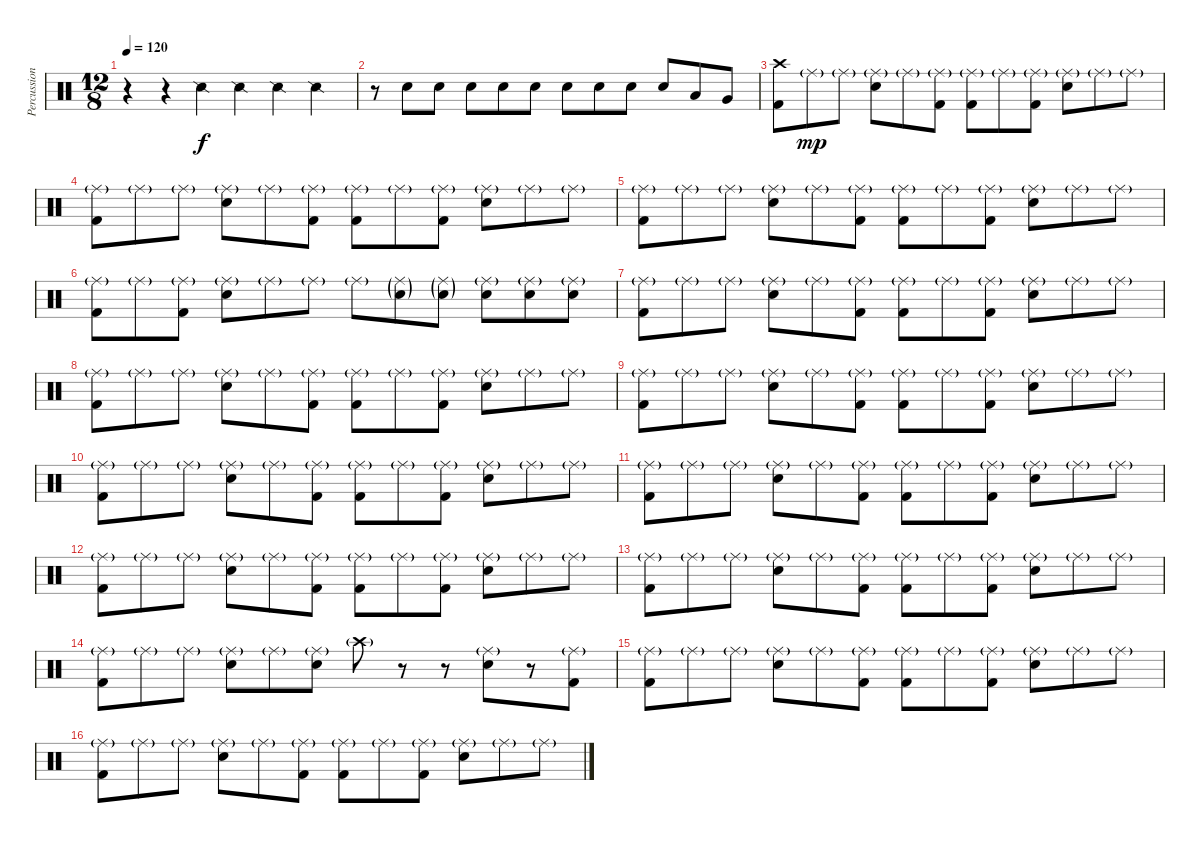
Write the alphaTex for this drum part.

\track ("Percussion" "Percussion") {instrument percussion}
\staff {score}
\articulation defaults
\ts (12 8)
\tempo 120
\clef neutral
\ks c
r.4{dy f} r.4 "Snare (side stick) 2".4 "Snare (side stick) 2".4 "Snare (side stick) 2".4 "Snare (side stick) 2".4 |
r.8 "Electric Snare (hit)".8 "Electric Snare (hit)".8 "Electric Snare (hit)".8 "Electric Snare (hit)".8 "Electric Snare (hit)".8 "Electric Snare (hit)".8 "Electric Snare (hit)".8 "Electric Snare (hit)".8 "Electric Snare (hit)".8 "Low Tom (hit)".8 "Very Low Tom (hit)".8 |
("Crash high (hit)" "Kick (hit) 2").8 "Ride (middle)"{g}.8{dy mp} "Ride (middle)"{g}.8 ("Ride (middle)"{g} "Electric Snare (hit)").8 "Ride (middle)"{g}.8 ("Ride (middle)"{g} "Kick (hit) 2").8 ("Ride (middle)"{g} "Kick (hit) 2").8 "Ride (middle)"{g}.8 ("Ride (middle)"{g} "Kick (hit) 2").8 ("Ride (middle)"{g} "Electric Snare (hit)").8 "Ride (middle)"{g}.8 "Ride (middle)"{g}.8 |
("Ride (middle)"{g} "Kick (hit) 2").8 "Ride (middle)"{g}.8 "Ride (middle)"{g}.8 ("Ride (middle)"{g} "Electric Snare (hit)").8 "Ride (middle)"{g}.8 ("Ride (middle)"{g} "Kick (hit) 2").8 ("Ride (middle)"{g} "Kick (hit) 2").8 "Ride (middle)"{g}.8 ("Ride (middle)"{g} "Kick (hit) 2").8 ("Ride (middle)"{g} "Electric Snare (hit)").8 "Ride (middle)"{g}.8 "Ride (middle)"{g}.8 |
("Ride (middle)"{g} "Kick (hit) 2").8 "Ride (middle)"{g}.8 "Ride (middle)"{g}.8 ("Ride (middle)"{g} "Electric Snare (hit)").8 "Ride (middle)"{g}.8 ("Ride (middle)"{g} "Kick (hit) 2").8 ("Ride (middle)"{g} "Kick (hit) 2").8 "Ride (middle)"{g}.8 ("Ride (middle)"{g} "Kick (hit) 2").8 ("Ride (middle)"{g} "Electric Snare (hit)").8 "Ride (middle)"{g}.8 "Ride (middle)"{g}.8 |
("Ride (middle)"{g} "Kick (hit) 2").8 "Ride (middle)"{g}.8 ("Ride (middle)"{g} "Kick (hit) 2").8 ("Ride (middle)"{g} "Electric Snare (hit)").8 "Ride (middle)"{g}.8 "Ride (middle)"{g}.8 "Ride (middle)"{g}.8 ("Ride (middle)"{g} "Electric Snare (hit)"{g}).8 ("Ride (middle)"{g} "Electric Snare (hit)"{g}).8 ("Ride (middle)"{g} "Electric Snare (hit)").8 ("Ride (middle)"{g} "Electric Snare (hit)").8 ("Ride (middle)"{g} "Electric Snare (hit)").8 |
("Ride (middle)"{g} "Kick (hit) 2").8 "Ride (middle)"{g}.8 "Ride (middle)"{g}.8 ("Ride (middle)"{g} "Electric Snare (hit)").8 "Ride (middle)"{g}.8 ("Ride (middle)"{g} "Kick (hit) 2").8 ("Ride (middle)"{g} "Kick (hit) 2").8 "Ride (middle)"{g}.8 ("Ride (middle)"{g} "Kick (hit) 2").8 ("Ride (middle)"{g} "Electric Snare (hit)").8 "Ride (middle)"{g}.8 "Ride (middle)"{g}.8 |
("Ride (middle)"{g} "Kick (hit) 2").8 "Ride (middle)"{g}.8 "Ride (middle)"{g}.8 ("Ride (middle)"{g} "Electric Snare (hit)").8 "Ride (middle)"{g}.8 ("Ride (middle)"{g} "Kick (hit) 2").8 ("Ride (middle)"{g} "Kick (hit) 2").8 "Ride (middle)"{g}.8 ("Ride (middle)"{g} "Kick (hit) 2").8 ("Ride (middle)"{g} "Electric Snare (hit)").8 "Ride (middle)"{g}.8 "Ride (middle)"{g}.8 |
("Ride (middle)"{g} "Kick (hit) 2").8 "Ride (middle)"{g}.8 "Ride (middle)"{g}.8 ("Ride (middle)"{g} "Electric Snare (hit)").8 "Ride (middle)"{g}.8 ("Ride (middle)"{g} "Kick (hit) 2").8 ("Ride (middle)"{g} "Kick (hit) 2").8 "Ride (middle)"{g}.8 ("Ride (middle)"{g} "Kick (hit) 2").8 ("Ride (middle)"{g} "Electric Snare (hit)").8 "Ride (middle)"{g}.8 "Ride (middle)"{g}.8 |
("Ride (middle)"{g} "Kick (hit) 2").8 "Ride (middle)"{g}.8 "Ride (middle)"{g}.8 ("Ride (middle)"{g} "Electric Snare (hit)").8 "Ride (middle)"{g}.8 ("Ride (middle)"{g} "Kick (hit) 2").8 ("Ride (middle)"{g} "Kick (hit) 2").8 "Ride (middle)"{g}.8 ("Ride (middle)"{g} "Kick (hit) 2").8 ("Ride (middle)"{g} "Electric Snare (hit)").8 "Ride (middle)"{g}.8 "Ride (middle)"{g}.8 |
("Ride (middle)"{g} "Kick (hit) 2").8 "Ride (middle)"{g}.8 "Ride (middle)"{g}.8 ("Ride (middle)"{g} "Electric Snare (hit)").8 "Ride (middle)"{g}.8 ("Ride (middle)"{g} "Kick (hit) 2").8 ("Ride (middle)"{g} "Kick (hit) 2").8 "Ride (middle)"{g}.8 ("Ride (middle)"{g} "Kick (hit) 2").8 ("Ride (middle)"{g} "Electric Snare (hit)").8 "Ride (middle)"{g}.8 "Ride (middle)"{g}.8 |
("Ride (middle)"{g} "Kick (hit) 2").8 "Ride (middle)"{g}.8 "Ride (middle)"{g}.8 ("Ride (middle)"{g} "Electric Snare (hit)").8 "Ride (middle)"{g}.8 ("Ride (middle)"{g} "Kick (hit) 2").8 ("Ride (middle)"{g} "Kick (hit) 2").8 "Ride (middle)"{g}.8 ("Ride (middle)"{g} "Kick (hit) 2").8 ("Ride (middle)"{g} "Electric Snare (hit)").8 "Ride (middle)"{g}.8 "Ride (middle)"{g}.8 |
("Ride (middle)"{g} "Kick (hit) 2").8 "Ride (middle)"{g}.8 "Ride (middle)"{g}.8 ("Ride (middle)"{g} "Electric Snare (hit)").8 "Ride (middle)"{g}.8 ("Ride (middle)"{g} "Kick (hit) 2").8 ("Ride (middle)"{g} "Kick (hit) 2").8 "Ride (middle)"{g}.8 ("Ride (middle)"{g} "Kick (hit) 2").8 ("Ride (middle)"{g} "Electric Snare (hit)").8 "Ride (middle)"{g}.8 "Ride (middle)"{g}.8 |
("Ride (middle)"{g} "Kick (hit) 2").8 "Ride (middle)"{g}.8 "Ride (middle)"{g}.8 ("Ride (middle)"{g} "Electric Snare (hit)").8 "Ride (middle)"{g}.8 ("Ride (middle)"{g} "Electric Snare (hit)").8 "Crash high (hit)"{g}.8 r.8 r.8 ("Ride (middle)"{g} "Electric Snare (hit)").8 r.8 ("Ride (middle)"{g} "Kick (hit) 2").8 |
("Ride (middle)"{g} "Kick (hit) 2").8 "Ride (middle)"{g}.8 "Ride (middle)"{g}.8 ("Ride (middle)"{g} "Electric Snare (hit)").8 "Ride (middle)"{g}.8 ("Ride (middle)"{g} "Kick (hit) 2").8 ("Ride (middle)"{g} "Kick (hit) 2").8 "Ride (middle)"{g}.8 ("Ride (middle)"{g} "Kick (hit) 2").8 ("Ride (middle)"{g} "Electric Snare (hit)").8 "Ride (middle)"{g}.8 "Ride (middle)"{g}.8 |
("Ride (middle)"{g} "Kick (hit) 2").8 "Ride (middle)"{g}.8 "Ride (middle)"{g}.8 ("Ride (middle)"{g} "Electric Snare (hit)").8 "Ride (middle)"{g}.8 ("Ride (middle)"{g} "Kick (hit) 2").8 ("Ride (middle)"{g} "Kick (hit) 2").8 "Ride (middle)"{g}.8 ("Ride (middle)"{g} "Kick (hit) 2").8 ("Ride (middle)"{g} "Electric Snare (hit)").8 "Ride (middle)"{g}.8 "Ride (middle)"{g}.8
